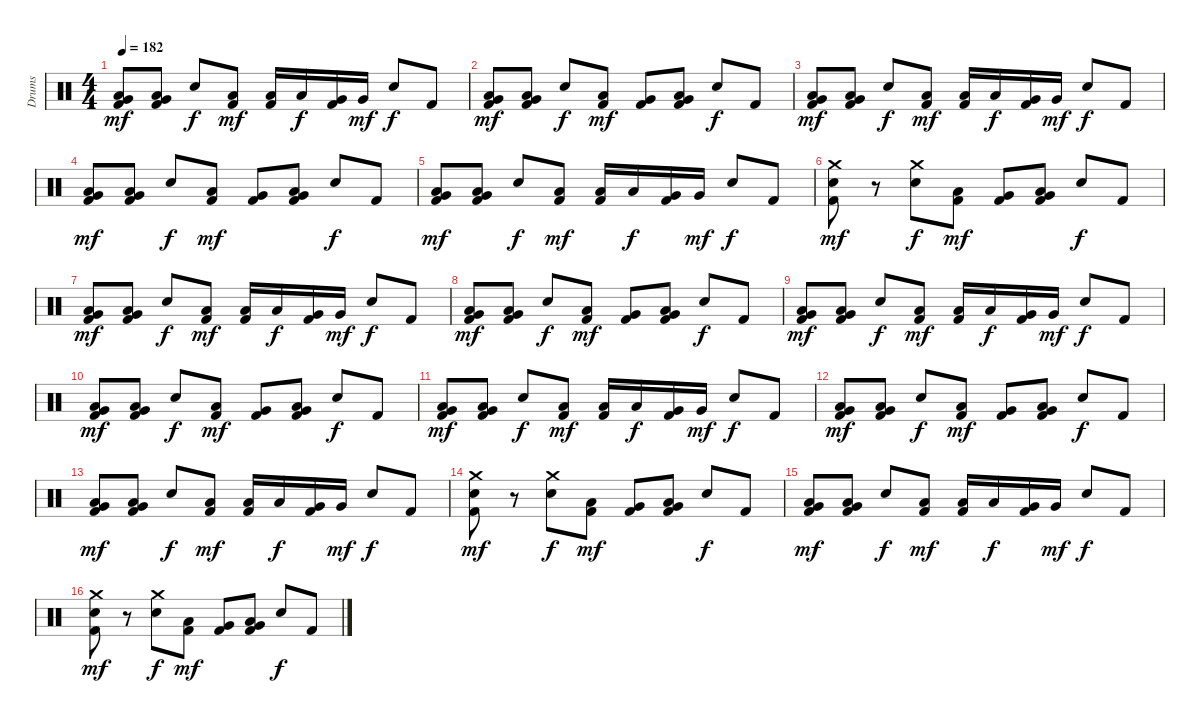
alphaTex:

\track ("Drums" "Drums") {instrument percussion}
\staff {score}
\articulation defaults
\ts (4 4)
\tempo 182
\clef neutral
\ks c
("Low Tom (hit)" "Very Low Tom (hit)" "Kick (hit) 2").8{dy mf} ("Low Tom (hit)" "Very Low Tom (hit)" "Kick (hit) 2").8 "Snare (hit) 2".8{dy f} ("Low Tom (hit)" "Kick (hit) 2").8{dy mf} ("Low Tom (hit)" "Kick (hit) 2").16 "Low Tom (hit)".16{dy f} ("Very Low Tom (hit)" "Kick (hit) 2").16 "Very Low Tom (hit)".16{dy mf} "Snare (hit) 2".8{dy f} "Kick (hit) 2".8 |
("Low Tom (hit)" "Very Low Tom (hit)" "Kick (hit) 2").8{dy mf} ("Low Tom (hit)" "Very Low Tom (hit)" "Kick (hit) 2").8 "Snare (hit) 2".8{dy f} ("Low Tom (hit)" "Kick (hit) 2").8{dy mf} ("Very Low Tom (hit)" "Kick (hit) 2").8 ("Low Tom (hit)" "Very Low Tom (hit)" "Kick (hit) 2").8 "Snare (hit) 2".8{dy f} "Kick (hit) 2".8 |
("Low Tom (hit)" "Very Low Tom (hit)" "Kick (hit) 2").8{dy mf} ("Low Tom (hit)" "Very Low Tom (hit)" "Kick (hit) 2").8 "Snare (hit) 2".8{dy f} ("Low Tom (hit)" "Kick (hit) 2").8{dy mf} ("Low Tom (hit)" "Kick (hit) 2").16 "Low Tom (hit)".16{dy f} ("Very Low Tom (hit)" "Kick (hit) 2").16 "Very Low Tom (hit)".16{dy mf} "Snare (hit) 2".8{dy f} "Kick (hit) 2".8 |
("Low Tom (hit)" "Very Low Tom (hit)" "Kick (hit) 2").8{dy mf} ("Low Tom (hit)" "Very Low Tom (hit)" "Kick (hit) 2").8 "Snare (hit) 2".8{dy f} ("Low Tom (hit)" "Kick (hit) 2").8{dy mf} ("Very Low Tom (hit)" "Kick (hit) 2").8 ("Low Tom (hit)" "Very Low Tom (hit)" "Kick (hit) 2").8 "Snare (hit) 2".8{dy f} "Kick (hit) 2".8 |
("Low Tom (hit)" "Very Low Tom (hit)" "Kick (hit) 2").8{dy mf} ("Low Tom (hit)" "Very Low Tom (hit)" "Kick (hit) 2").8 "Snare (hit) 2".8{dy f} ("Low Tom (hit)" "Kick (hit) 2").8{dy mf} ("Low Tom (hit)" "Kick (hit) 2").16 "Low Tom (hit)".16{dy f} ("Very Low Tom (hit)" "Kick (hit) 2").16 "Very Low Tom (hit)".16{dy mf} "Snare (hit) 2".8{dy f} "Kick (hit) 2".8 |
("Crash medium (hit)" "Snare (hit) 2" "Kick (hit) 2").8{dy mf} r.8 ("Crash medium (hit)" "Snare (hit) 2").8{dy f} ("Low Tom (hit)" "Kick (hit) 2").8{dy mf} ("Very Low Tom (hit)" "Kick (hit) 2").8 ("Low Tom (hit)" "Very Low Tom (hit)" "Kick (hit) 2").8 "Snare (hit) 2".8{dy f} "Kick (hit) 2".8 |
("Low Tom (hit)" "Very Low Tom (hit)" "Kick (hit) 2").8{dy mf} ("Low Tom (hit)" "Very Low Tom (hit)" "Kick (hit) 2").8 "Snare (hit) 2".8{dy f} ("Low Tom (hit)" "Kick (hit) 2").8{dy mf} ("Low Tom (hit)" "Kick (hit) 2").16 "Low Tom (hit)".16{dy f} ("Very Low Tom (hit)" "Kick (hit) 2").16 "Very Low Tom (hit)".16{dy mf} "Snare (hit) 2".8{dy f} "Kick (hit) 2".8 |
("Low Tom (hit)" "Very Low Tom (hit)" "Kick (hit) 2").8{dy mf} ("Low Tom (hit)" "Very Low Tom (hit)" "Kick (hit) 2").8 "Snare (hit) 2".8{dy f} ("Low Tom (hit)" "Kick (hit) 2").8{dy mf} ("Very Low Tom (hit)" "Kick (hit) 2").8 ("Low Tom (hit)" "Very Low Tom (hit)" "Kick (hit) 2").8 "Snare (hit) 2".8{dy f} "Kick (hit) 2".8 |
("Low Tom (hit)" "Very Low Tom (hit)" "Kick (hit) 2").8{dy mf} ("Low Tom (hit)" "Very Low Tom (hit)" "Kick (hit) 2").8 "Snare (hit) 2".8{dy f} ("Low Tom (hit)" "Kick (hit) 2").8{dy mf} ("Low Tom (hit)" "Kick (hit) 2").16 "Low Tom (hit)".16{dy f} ("Very Low Tom (hit)" "Kick (hit) 2").16 "Very Low Tom (hit)".16{dy mf} "Snare (hit) 2".8{dy f} "Kick (hit) 2".8 |
("Low Tom (hit)" "Very Low Tom (hit)" "Kick (hit) 2").8{dy mf} ("Low Tom (hit)" "Very Low Tom (hit)" "Kick (hit) 2").8 "Snare (hit) 2".8{dy f} ("Low Tom (hit)" "Kick (hit) 2").8{dy mf} ("Very Low Tom (hit)" "Kick (hit) 2").8 ("Low Tom (hit)" "Very Low Tom (hit)" "Kick (hit) 2").8 "Snare (hit) 2".8{dy f} "Kick (hit) 2".8 |
("Low Tom (hit)" "Very Low Tom (hit)" "Kick (hit) 2").8{dy mf} ("Low Tom (hit)" "Very Low Tom (hit)" "Kick (hit) 2").8 "Snare (hit) 2".8{dy f} ("Low Tom (hit)" "Kick (hit) 2").8{dy mf} ("Low Tom (hit)" "Kick (hit) 2").16 "Low Tom (hit)".16{dy f} ("Very Low Tom (hit)" "Kick (hit) 2").16 "Very Low Tom (hit)".16{dy mf} "Snare (hit) 2".8{dy f} "Kick (hit) 2".8 |
("Low Tom (hit)" "Very Low Tom (hit)" "Kick (hit) 2").8{dy mf} ("Low Tom (hit)" "Very Low Tom (hit)" "Kick (hit) 2").8 "Snare (hit) 2".8{dy f} ("Low Tom (hit)" "Kick (hit) 2").8{dy mf} ("Very Low Tom (hit)" "Kick (hit) 2").8 ("Low Tom (hit)" "Very Low Tom (hit)" "Kick (hit) 2").8 "Snare (hit) 2".8{dy f} "Kick (hit) 2".8 |
("Low Tom (hit)" "Very Low Tom (hit)" "Kick (hit) 2").8{dy mf} ("Low Tom (hit)" "Very Low Tom (hit)" "Kick (hit) 2").8 "Snare (hit) 2".8{dy f} ("Low Tom (hit)" "Kick (hit) 2").8{dy mf} ("Low Tom (hit)" "Kick (hit) 2").16 "Low Tom (hit)".16{dy f} ("Very Low Tom (hit)" "Kick (hit) 2").16 "Very Low Tom (hit)".16{dy mf} "Snare (hit) 2".8{dy f} "Kick (hit) 2".8 |
("Crash medium (hit)" "Snare (hit) 2" "Kick (hit) 2").8{dy mf} r.8 ("Crash medium (hit)" "Snare (hit) 2").8{dy f} ("Low Tom (hit)" "Kick (hit) 2").8{dy mf} ("Very Low Tom (hit)" "Kick (hit) 2").8 ("Low Tom (hit)" "Very Low Tom (hit)" "Kick (hit) 2").8 "Snare (hit) 2".8{dy f} "Kick (hit) 2".8 |
("Low Tom (hit)" "Very Low Tom (hit)" "Kick (hit) 2").8{dy mf} ("Low Tom (hit)" "Very Low Tom (hit)" "Kick (hit) 2").8 "Snare (hit) 2".8{dy f} ("Low Tom (hit)" "Kick (hit) 2").8{dy mf} ("Low Tom (hit)" "Kick (hit) 2").16 "Low Tom (hit)".16{dy f} ("Very Low Tom (hit)" "Kick (hit) 2").16 "Very Low Tom (hit)".16{dy mf} "Snare (hit) 2".8{dy f} "Kick (hit) 2".8 |
("Crash medium (hit)" "Snare (hit) 2" "Kick (hit) 2").8{dy mf} r.8 ("Crash medium (hit)" "Snare (hit) 2").8{dy f} ("Low Tom (hit)" "Kick (hit) 2").8{dy mf} ("Very Low Tom (hit)" "Kick (hit) 2").8 ("Low Tom (hit)" "Very Low Tom (hit)" "Kick (hit) 2").8 "Snare (hit) 2".8{dy f} "Kick (hit) 2".8
